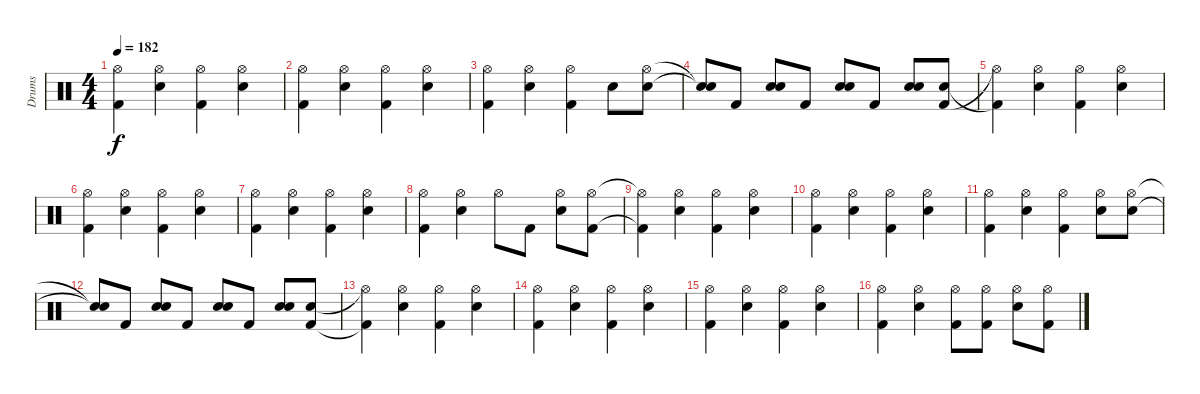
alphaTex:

\track ("Drums" "Drums") {instrument percussion}
\staff {score}
\articulation defaults
\ts (4 4)
\tempo 182
\clef neutral
\ks c
("Kick (hit) 2" "Hi-Hat (open)").4{dy f} ("Snare (hit) 2" "Hi-Hat (open)").4 ("Kick (hit) 2" "Hi-Hat (open)").4 ("Snare (hit) 2" "Hi-Hat (open)").4 |
("Kick (hit) 2" "Hi-Hat (open)").4 ("Snare (hit) 2" "Hi-Hat (open)").4 ("Kick (hit) 2" "Hi-Hat (open)").4 ("Snare (hit) 2" "Hi-Hat (open)").4 |
("Kick (hit) 2" "Hi-Hat (open)").4 ("Snare (hit) 2" "Hi-Hat (open)").4 ("Kick (hit) 2" "Hi-Hat (open)").4 "Snare (hit) 2".8 ("Snare (hit) 2" "Hi-Hat (open)").8 |
("Snare (hit)"{t} "Snare (hit)"{t}).8 "Kick (hit) 2".8 ("Snare (hit) 2" "Electric Snare (hit)").8 "Kick (hit) 2".8 ("Snare (hit) 2" "Electric Snare (hit)").8 "Kick (hit) 2".8 ("Snare (hit) 2" "Electric Snare (hit)").8 ("Kick (hit) 2" "Electric Snare (hit)").8 |
("Hi-Hat (open)"{t} "Kick (hit) 2"{t}).4 ("Snare (hit) 2" "Hi-Hat (open)").4 ("Kick (hit) 2" "Hi-Hat (open)").4 ("Snare (hit) 2" "Hi-Hat (open)").4 |
("Kick (hit) 2" "Hi-Hat (open)").4 ("Snare (hit) 2" "Hi-Hat (open)").4 ("Kick (hit) 2" "Hi-Hat (open)").4 ("Snare (hit) 2" "Hi-Hat (open)").4 |
("Kick (hit) 2" "Hi-Hat (open)").4 ("Snare (hit) 2" "Hi-Hat (open)").4 ("Kick (hit) 2" "Hi-Hat (open)").4 ("Snare (hit) 2" "Hi-Hat (open)").4 |
("Kick (hit) 2" "Hi-Hat (open)").4 ("Snare (hit) 2" "Hi-Hat (open)").4 "Hi-Hat (open)".8 "Kick (hit) 2".8 ("Snare (hit) 2" "Hi-Hat (open)").8 ("Kick (hit) 2" "Hi-Hat (open)").8 |
("Kick (hit) 2"{t} "Hi-Hat (open)"{t}).4 ("Snare (hit) 2" "Hi-Hat (open)").4 ("Kick (hit) 2" "Hi-Hat (open)").4 ("Snare (hit) 2" "Hi-Hat (open)").4 |
("Kick (hit) 2" "Hi-Hat (open)").4 ("Snare (hit) 2" "Hi-Hat (open)").4 ("Kick (hit) 2" "Hi-Hat (open)").4 ("Snare (hit) 2" "Hi-Hat (open)").4 |
("Kick (hit) 2" "Hi-Hat (open)").4 ("Snare (hit) 2" "Hi-Hat (open)").4 ("Kick (hit) 2" "Hi-Hat (open)").4 ("Snare (hit) 2" "Hi-Hat (open)").8 ("Snare (hit) 2" "Hi-Hat (open)").8 |
("Snare (hit)"{t} "Snare (hit)"{t}).8 "Kick (hit) 2".8 ("Snare (hit) 2" "Electric Snare (hit)").8 "Kick (hit) 2".8 ("Snare (hit) 2" "Electric Snare (hit)").8 "Kick (hit) 2".8 ("Snare (hit) 2" "Electric Snare (hit)").8 ("Kick (hit) 2" "Electric Snare (hit)").8 |
("Kick (hit) 2"{t} "Hi-Hat (open)"{t}).4 ("Snare (hit) 2" "Hi-Hat (open)").4 ("Kick (hit) 2" "Hi-Hat (open)").4 ("Snare (hit) 2" "Hi-Hat (open)").4 |
("Kick (hit) 2" "Hi-Hat (open)").4 ("Snare (hit) 2" "Hi-Hat (open)").4 ("Kick (hit) 2" "Hi-Hat (open)").4 ("Snare (hit) 2" "Hi-Hat (open)").4 |
("Kick (hit) 2" "Hi-Hat (open)").4 ("Snare (hit) 2" "Hi-Hat (open)").4 ("Kick (hit) 2" "Hi-Hat (open)").4 ("Snare (hit) 2" "Hi-Hat (open)").4 |
("Kick (hit) 2" "Hi-Hat (open)").4 ("Snare (hit) 2" "Hi-Hat (open)").4 ("Kick (hit) 2" "Hi-Hat (open)").8 ("Kick (hit) 2" "Hi-Hat (open)").8 ("Snare (hit) 2" "Hi-Hat (open)").8 ("Kick (hit) 2" "Hi-Hat (open)").8
